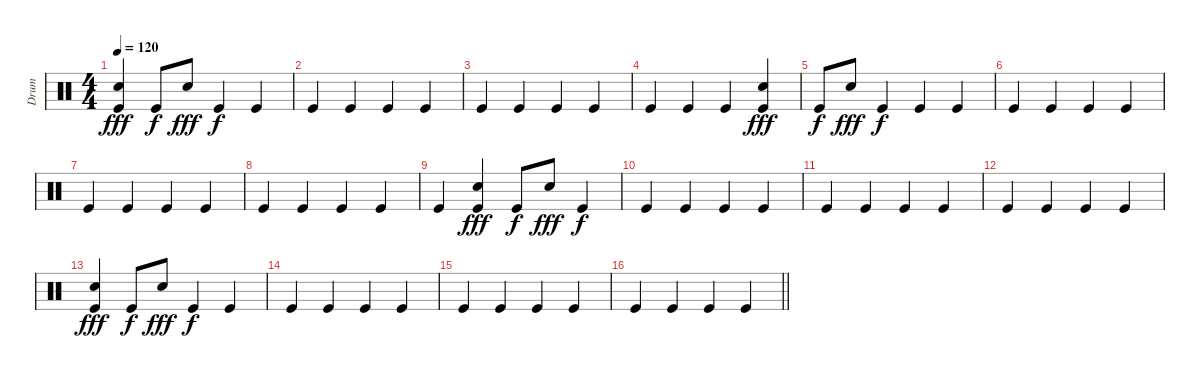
\track ("Drum" "Drum") {instrument percussion}
\staff {score}
\articulation defaults
\ts (4 4)
\tempo 120
\clef neutral
\ks c
("Electric Snare (hit)" "Kick (hit)").4{dy fff} "Kick (hit)".8{dy f} "Electric Snare (hit)".8{dy fff} "Kick (hit)".4{dy f} "Kick (hit)".4 |
"Kick (hit)".4 "Kick (hit)".4 "Kick (hit)".4 "Kick (hit)".4 |
"Kick (hit)".4 "Kick (hit)".4 "Kick (hit)".4 "Kick (hit)".4 |
"Kick (hit)".4 "Kick (hit)".4 "Kick (hit)".4 ("Electric Snare (hit)" "Kick (hit)").4{dy fff} |
"Kick (hit)".8{dy f} "Electric Snare (hit)".8{dy fff} "Kick (hit)".4{dy f} "Kick (hit)".4 "Kick (hit)".4 |
"Kick (hit)".4 "Kick (hit)".4 "Kick (hit)".4 "Kick (hit)".4 |
"Kick (hit)".4 "Kick (hit)".4 "Kick (hit)".4 "Kick (hit)".4 |
"Kick (hit)".4 "Kick (hit)".4 "Kick (hit)".4 "Kick (hit)".4 |
"Kick (hit)".4 ("Electric Snare (hit)" "Kick (hit)").4{dy fff} "Kick (hit)".8{dy f} "Electric Snare (hit)".8{dy fff} "Kick (hit)".4{dy f} |
"Kick (hit)".4 "Kick (hit)".4 "Kick (hit)".4 "Kick (hit)".4 |
"Kick (hit)".4 "Kick (hit)".4 "Kick (hit)".4 "Kick (hit)".4 |
"Kick (hit)".4 "Kick (hit)".4 "Kick (hit)".4 "Kick (hit)".4 |
("Electric Snare (hit)" "Kick (hit)").4{dy fff} "Kick (hit)".8{dy f} "Electric Snare (hit)".8{dy fff} "Kick (hit)".4{dy f} "Kick (hit)".4 |
"Kick (hit)".4 "Kick (hit)".4 "Kick (hit)".4 "Kick (hit)".4 |
"Kick (hit)".4 "Kick (hit)".4 "Kick (hit)".4 "Kick (hit)".4 |
\barLineRight lightlight "Kick (hit)".4 "Kick (hit)".4 "Kick (hit)".4 "Kick (hit)".4
